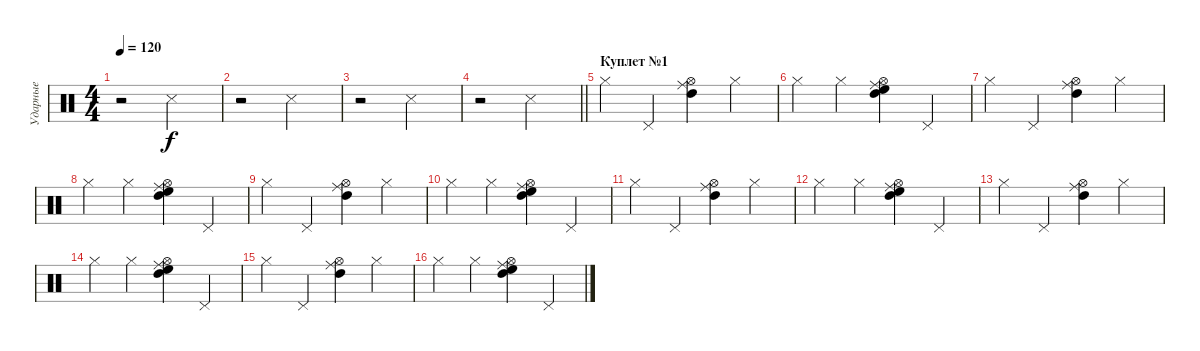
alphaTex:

\track ("Ударные" "Ударные") {instrument percussion}
\staff {score}
\articulation defaults
\ts (4 4)
\tempo 120
\clef neutral
\ks c
r.2{dy f} "Snare (side stick) 3".2 |
r.2 "Snare (side stick) 3".2 |
r.2 "Snare (side stick) 3".2 |
\barLineRight lightlight
r.2 "Snare (side stick) 3".2 |
\section ("" "Куплет №1")
"Hi-Hat (closed)".4 "Pedal Hi-Hat (hit)".4 ("Hi-Hat (open)" "High Tom (hit)" "Ride (middle)").4 "Hi-Hat (closed)".4 |
"Hi-Hat (closed)".4 "Hi-Hat (closed)".4 ("Ride (middle)" "Hi-Hat (open)" "High Tom (hit)" "High Floor Tom (hit)").4 "Pedal Hi-Hat (hit)".4 |
"Hi-Hat (closed)".4 "Pedal Hi-Hat (hit)".4 ("Hi-Hat (open)" "High Tom (hit)" "Ride (middle)").4 "Hi-Hat (closed)".4 |
"Hi-Hat (closed)".4 "Hi-Hat (closed)".4 ("Ride (middle)" "Hi-Hat (open)" "High Tom (hit)" "High Floor Tom (hit)").4 "Pedal Hi-Hat (hit)".4 |
"Hi-Hat (closed)".4 "Pedal Hi-Hat (hit)".4 ("Hi-Hat (open)" "High Tom (hit)" "Ride (middle)").4 "Hi-Hat (closed)".4 |
"Hi-Hat (closed)".4 "Hi-Hat (closed)".4 ("Ride (middle)" "Hi-Hat (open)" "High Tom (hit)" "High Floor Tom (hit)").4 "Pedal Hi-Hat (hit)".4 |
"Hi-Hat (closed)".4 "Pedal Hi-Hat (hit)".4 ("Hi-Hat (open)" "High Tom (hit)" "Ride (middle)").4 "Hi-Hat (closed)".4 |
"Hi-Hat (closed)".4 "Hi-Hat (closed)".4 ("Ride (middle)" "Hi-Hat (open)" "High Tom (hit)" "High Floor Tom (hit)").4 "Pedal Hi-Hat (hit)".4 |
"Hi-Hat (closed)".4 "Pedal Hi-Hat (hit)".4 ("Hi-Hat (open)" "High Tom (hit)" "Ride (middle)").4 "Hi-Hat (closed)".4 |
"Hi-Hat (closed)".4 "Hi-Hat (closed)".4 ("Ride (middle)" "Hi-Hat (open)" "High Tom (hit)" "High Floor Tom (hit)").4 "Pedal Hi-Hat (hit)".4 |
"Hi-Hat (closed)".4 "Pedal Hi-Hat (hit)".4 ("Hi-Hat (open)" "High Tom (hit)" "Ride (middle)").4 "Hi-Hat (closed)".4 |
"Hi-Hat (closed)".4 "Hi-Hat (closed)".4 ("Ride (middle)" "Hi-Hat (open)" "High Tom (hit)" "High Floor Tom (hit)").4 "Pedal Hi-Hat (hit)".4
